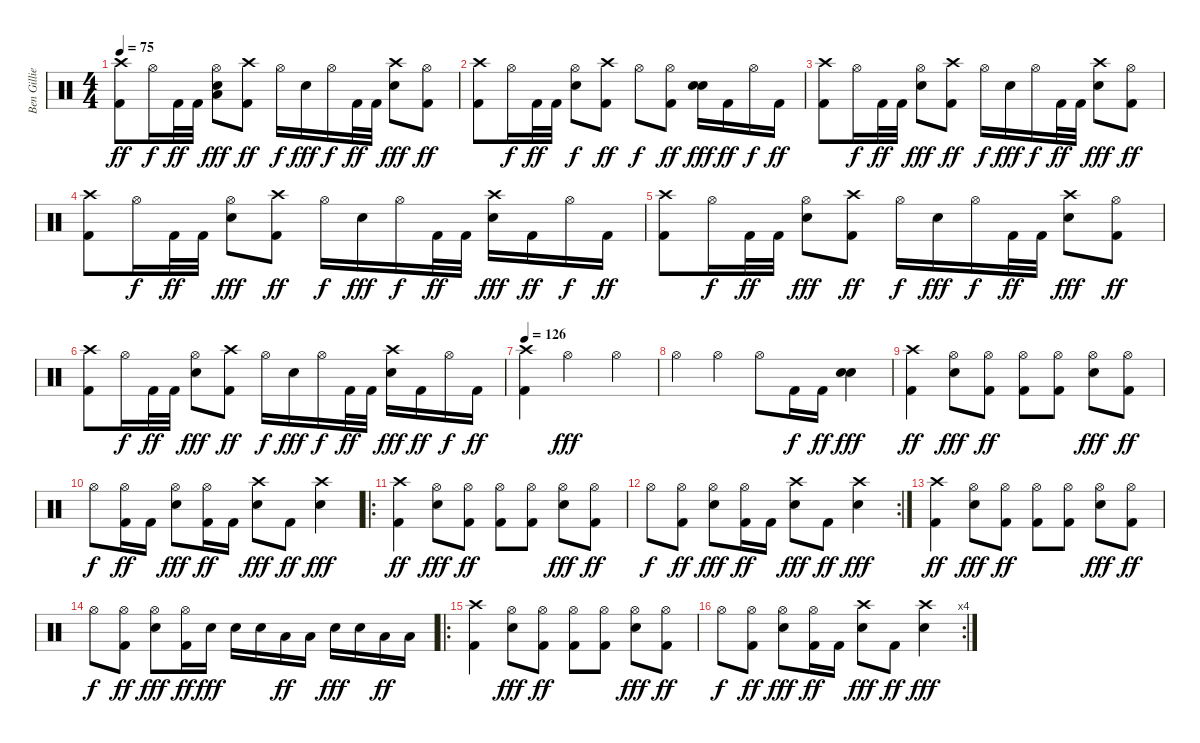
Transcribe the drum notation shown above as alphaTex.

\track ("Ben Gillies" "Ben Gillie") {instrument percussion}
\staff {score}
\articulation defaults
\ts (4 4)
\tempo 75
\clef neutral
\ks c
("Crash high (hit)" "Kick (hit) 2").8{dy ff} "Hi-Hat (open)".16{dy f} "Kick (hit) 2".32{dy ff} "Kick (hit) 2".32 ("Low Floor Tom (hit)" "Hi-Hat (open)" "Electric Snare (hit)").8{dy fff} ("Crash high (hit)" "Kick (hit) 2").8{dy ff} "Hi-Hat (open)".16{dy f} "Electric Snare (hit)".16{dy fff} "Hi-Hat (open)".16{dy f} "Kick (hit) 2".32{dy ff} "Kick (hit) 2".32 ("Crash high (hit)" "Electric Snare (hit)").8{dy fff} ("Hi-Hat (open)" "Kick (hit) 2").8{dy ff} |
("Crash high (hit)" "Kick (hit) 2").8 "Hi-Hat (open)".16{dy f} "Kick (hit) 2".32{dy ff} "Kick (hit) 2".32 ("Hi-Hat (open)" "Electric Snare (hit)").8{dy f} ("Crash high (hit)" "Kick (hit) 2").8{dy ff} "Hi-Hat (open)".8{dy f} ("Hi-Hat (open)" "Kick (hit) 2").8{dy ff} ("Electric Snare (hit)" "Electric Snare (hit)").16{dy fff} "Kick (hit) 2".16{dy ff} "Hi-Hat (open)".16{dy f} "Kick (hit) 2".16{dy ff} |
("Crash high (hit)" "Kick (hit) 2").8 "Hi-Hat (open)".16{dy f} "Kick (hit) 2".32{dy ff} "Kick (hit) 2".32 ("Hi-Hat (open)" "Electric Snare (hit)").8{dy fff} ("Crash high (hit)" "Kick (hit) 2").8{dy ff} "Hi-Hat (open)".16{dy f} "Electric Snare (hit)".16{dy fff} "Hi-Hat (open)".16{dy f} "Kick (hit) 2".32{dy ff} "Kick (hit) 2".32 ("Crash high (hit)" "Electric Snare (hit)").8{dy fff} ("Hi-Hat (open)" "Kick (hit) 2").8{dy ff} |
("Crash high (hit)" "Kick (hit) 2").8 "Hi-Hat (open)".16{dy f} "Kick (hit) 2".32{dy ff} "Kick (hit) 2".32 ("Hi-Hat (open)" "Electric Snare (hit)").8{dy fff} ("Crash high (hit)" "Kick (hit) 2").8{dy ff} "Hi-Hat (open)".16{dy f} "Electric Snare (hit)".16{dy fff} "Hi-Hat (open)".16{dy f} "Kick (hit) 2".32{dy ff} "Kick (hit) 2".32 ("Crash high (hit)" "Electric Snare (hit)").16{dy fff} "Kick (hit) 2".16{dy ff} "Hi-Hat (open)".16{dy f} "Kick (hit) 2".16{dy ff} |
("Crash high (hit)" "Kick (hit) 2").8 "Hi-Hat (open)".16{dy f} "Kick (hit) 2".32{dy ff} "Kick (hit) 2".32 ("Hi-Hat (open)" "Electric Snare (hit)").8{dy fff} ("Crash high (hit)" "Kick (hit) 2").8{dy ff} "Hi-Hat (open)".16{dy f} "Electric Snare (hit)".16{dy fff} "Hi-Hat (open)".16{dy f} "Kick (hit) 2".32{dy ff} "Kick (hit) 2".32 ("Crash high (hit)" "Electric Snare (hit)").8{dy fff} ("Hi-Hat (open)" "Kick (hit) 2").8{dy ff} |
("Crash high (hit)" "Kick (hit) 2").8 "Hi-Hat (open)".16{dy f} "Kick (hit) 2".32{dy ff} "Kick (hit) 2".32 ("Hi-Hat (open)" "Electric Snare (hit)").8{dy fff} ("Crash high (hit)" "Kick (hit) 2").8{dy ff} "Hi-Hat (open)".16{dy f} "Electric Snare (hit)".16{dy fff} "Hi-Hat (open)".16{dy f} "Kick (hit) 2".32{dy ff} "Kick (hit) 2".32 ("Crash high (hit)" "Electric Snare (hit)").16{dy fff} "Kick (hit) 2".16{dy ff} "Hi-Hat (open)".16{dy f} "Kick (hit) 2".16{dy ff} |
\tempo 126
("Crash high (hit)" "Kick (hit) 2").4 "Hi-Hat (open)".2{dy fff} "Hi-Hat (open)".4 |
"Hi-Hat (open)".4 "Hi-Hat (open)".4 "Hi-Hat (open)".8 "Kick (hit) 2".16{dy f} "Kick (hit) 2".16{dy ff} ("Electric Snare (hit)" "Electric Snare (hit)").4{dy fff} |
("Crash high (hit)" "Kick (hit) 2").4{dy ff} ("Hi-Hat (open)" "Electric Snare (hit)").8{dy fff} ("Hi-Hat (open)" "Kick (hit) 2").8{dy ff} ("Hi-Hat (open)" "Kick (hit) 2").8 ("Hi-Hat (open)" "Kick (hit) 2").8 ("Hi-Hat (open)" "Electric Snare (hit)").8{dy fff} ("Hi-Hat (open)" "Kick (hit) 2").8{dy ff} |
"Hi-Hat (open)".8{dy f} ("Hi-Hat (open)" "Kick (hit) 2").16{dy ff} "Kick (hit) 2".16 ("Hi-Hat (open)" "Electric Snare (hit)").8{dy fff} ("Hi-Hat (open)" "Kick (hit) 2").16{dy ff} "Kick (hit) 2".16 ("Crash high (hit)" "Electric Snare (hit)").8{dy fff} "Kick (hit) 2".8{dy ff} ("Crash high (hit)" "Electric Snare (hit)").4{dy fff} |
\ro
("Crash high (hit)" "Kick (hit) 2").4{dy ff} ("Hi-Hat (open)" "Electric Snare (hit)").8{dy fff} ("Hi-Hat (open)" "Kick (hit) 2").8{dy ff} ("Hi-Hat (open)" "Kick (hit) 2").8 ("Hi-Hat (open)" "Kick (hit) 2").8 ("Hi-Hat (open)" "Electric Snare (hit)").8{dy fff} ("Hi-Hat (open)" "Kick (hit) 2").8{dy ff} |
\rc 2 "Hi-Hat (open)".8{dy f}
("Hi-Hat (open)" "Kick (hit) 2").8{dy ff} ("Hi-Hat (open)" "Electric Snare (hit)").8{dy fff} ("Hi-Hat (open)" "Kick (hit) 2").16{dy ff} "Kick (hit) 2".16 ("Crash high (hit)" "Electric Snare (hit)").8{dy fff} "Kick (hit) 2".8{dy ff} ("Crash high (hit)" "Electric Snare (hit)").4{dy fff} |
("Crash high (hit)" "Kick (hit) 2").4{dy ff} ("Hi-Hat (open)" "Electric Snare (hit)").8{dy fff} ("Hi-Hat (open)" "Kick (hit) 2").8{dy ff} ("Hi-Hat (open)" "Kick (hit) 2").8 ("Hi-Hat (open)" "Kick (hit) 2").8 ("Hi-Hat (open)" "Electric Snare (hit)").8{dy fff} ("Hi-Hat (open)" "Kick (hit) 2").8{dy ff} |
"Hi-Hat (open)".8{dy f} ("Hi-Hat (open)" "Kick (hit) 2").8{dy ff} ("Hi-Hat (open)" "Electric Snare (hit)").8{dy fff} ("Hi-Hat (open)" "Kick (hit) 2").16{dy ff} "Electric Snare (hit)".16{dy fff} "Electric Snare (hit)".16 "Electric Snare (hit)".16 "Low Tom (hit)".16{dy ff} "Low Tom (hit)".16 "Electric Snare (hit)".16{dy fff} "Electric Snare (hit)".16 "Low Tom (hit)".16{dy ff} "Low Tom (hit)".16 |
\ro
("Crash high (hit)" "Kick (hit) 2").4 ("Hi-Hat (open)" "Electric Snare (hit)").8{dy fff} ("Hi-Hat (open)" "Kick (hit) 2").8{dy ff} ("Hi-Hat (open)" "Kick (hit) 2").8 ("Hi-Hat (open)" "Kick (hit) 2").8 ("Hi-Hat (open)" "Electric Snare (hit)").8{dy fff} ("Hi-Hat (open)" "Kick (hit) 2").8{dy ff} |
\rc 4 "Hi-Hat (open)".8{dy f}
("Hi-Hat (open)" "Kick (hit) 2").8{dy ff} ("Hi-Hat (open)" "Electric Snare (hit)").8{dy fff} ("Hi-Hat (open)" "Kick (hit) 2").16{dy ff} "Kick (hit) 2".16 ("Crash high (hit)" "Electric Snare (hit)").8{dy fff} "Kick (hit) 2".8{dy ff} ("Crash high (hit)" "Electric Snare (hit)").4{dy fff}
